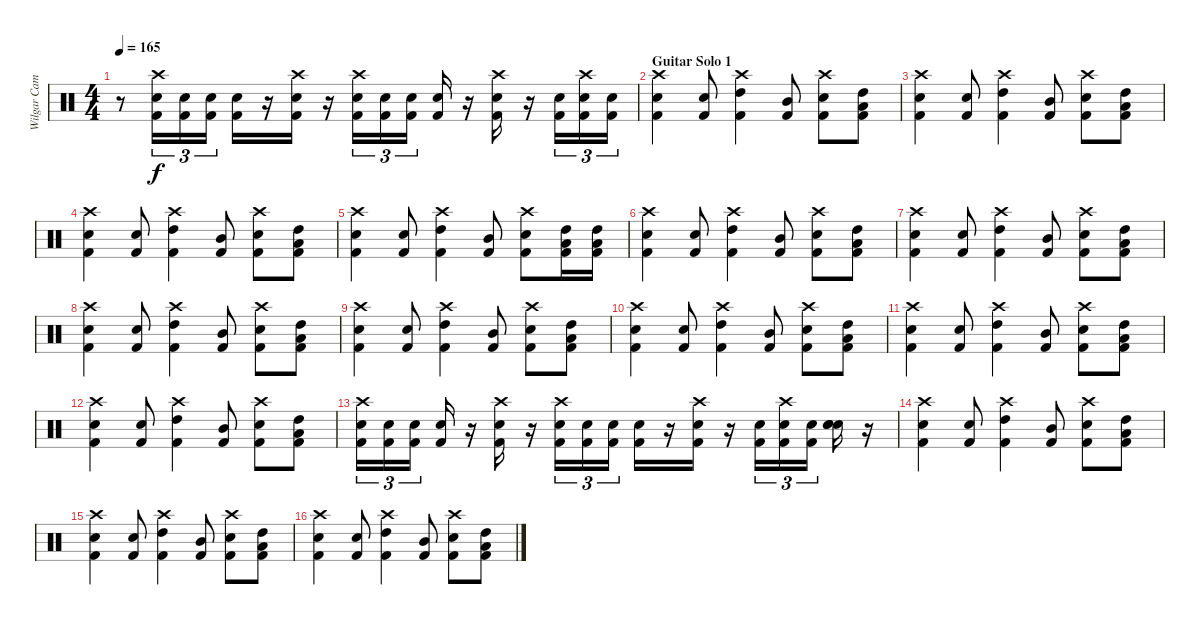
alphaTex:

\track ("Wilgar Campbell" "Wilgar Cam") {instrument percussion}
\staff {score}
\articulation defaults
\ts (4 4)
\tempo 165
\clef neutral
\ks c
r.8{dy f} ("Crash high (hit)" "Electric Snare (hit)" "Kick (hit) 2").16{tu (3 2)} ("Electric Snare (hit)" "Kick (hit) 2").16{tu (3 2)} ("Electric Snare (hit)" "Kick (hit) 2").16{tu (3 2)} ("Snare (hit) 2" "Kick (hit) 2").16 r.16 ("Crash high (hit)" "Snare (hit) 2" "Kick (hit) 2").16 r.16 ("Crash high (hit)" "Electric Snare (hit)" "Kick (hit) 2").16{tu (3 2)} ("Electric Snare (hit)" "Kick (hit) 2").16{tu (3 2)} ("Electric Snare (hit)" "Kick (hit) 2").16{tu (3 2)} ("Snare (hit) 2" "Kick (hit) 2").16 r.16 ("Crash high (hit)" "Snare (hit) 2" "Kick (hit) 2").16 r.16 ("Electric Snare (hit)" "Kick (hit) 2").16{tu (3 2)} ("Crash high (hit)" "Electric Snare (hit)" "Kick (hit) 2").16{tu (3 2)} ("Electric Snare (hit)" "Kick (hit) 2").16{tu (3 2)} |
\section ("" "Guitar Solo 1")
("Crash high (hit)" "Electric Snare (hit)" "Kick (hit) 2").4 ("Snare (hit) 2" "Kick (hit) 2").8 ("Crash high (hit)" "High Tom (hit)" "Kick (hit) 2").4 ("Mid Tom (hit)" "Kick (hit) 2").8 ("Crash high (hit)" "Electric Snare (hit)" "Kick (hit) 2").8 ("High Tom (hit)" "Kick (hit) 2" "Low Tom (hit)").8 |
("Crash high (hit)" "Electric Snare (hit)" "Kick (hit) 2").4 ("Snare (hit) 2" "Kick (hit) 2").8 ("Crash high (hit)" "High Tom (hit)" "Kick (hit) 2").4 ("Mid Tom (hit)" "Kick (hit) 2").8 ("Crash high (hit)" "Electric Snare (hit)" "Kick (hit) 2").8 ("High Tom (hit)" "Kick (hit) 2" "Low Tom (hit)").8 |
("Crash high (hit)" "Electric Snare (hit)" "Kick (hit) 2").4 ("Snare (hit) 2" "Kick (hit) 2").8 ("Crash high (hit)" "High Tom (hit)" "Kick (hit) 2").4 ("Mid Tom (hit)" "Kick (hit) 2").8 ("Crash high (hit)" "Electric Snare (hit)" "Kick (hit) 2").8 ("High Tom (hit)" "Kick (hit) 2" "Low Tom (hit)").8 |
("Crash high (hit)" "Electric Snare (hit)" "Kick (hit) 2").4 ("Snare (hit) 2" "Kick (hit) 2").8 ("Crash high (hit)" "High Tom (hit)" "Kick (hit) 2").4 ("Mid Tom (hit)" "Kick (hit) 2").8 ("Crash high (hit)" "Electric Snare (hit)" "Kick (hit) 2").8 ("High Tom (hit)" "Kick (hit) 2" "Low Tom (hit)").16 ("High Tom (hit)" "Kick (hit) 2" "Low Tom (hit)").16 |
("Crash high (hit)" "Electric Snare (hit)" "Kick (hit) 2").4 ("Snare (hit) 2" "Kick (hit) 2").8 ("Crash high (hit)" "High Tom (hit)" "Kick (hit) 2").4 ("Mid Tom (hit)" "Kick (hit) 2").8 ("Crash high (hit)" "Electric Snare (hit)" "Kick (hit) 2").8 ("High Tom (hit)" "Kick (hit) 2" "Low Tom (hit)").8 |
("Crash high (hit)" "Electric Snare (hit)" "Kick (hit) 2").4 ("Snare (hit) 2" "Kick (hit) 2").8 ("Crash high (hit)" "High Tom (hit)" "Kick (hit) 2").4 ("Mid Tom (hit)" "Kick (hit) 2").8 ("Crash high (hit)" "Electric Snare (hit)" "Kick (hit) 2").8 ("High Tom (hit)" "Kick (hit) 2" "Low Tom (hit)").8 |
("Crash high (hit)" "Electric Snare (hit)" "Kick (hit) 2").4 ("Snare (hit) 2" "Kick (hit) 2").8 ("Crash high (hit)" "High Tom (hit)" "Kick (hit) 2").4 ("Mid Tom (hit)" "Kick (hit) 2").8 ("Crash high (hit)" "Electric Snare (hit)" "Kick (hit) 2").8 ("High Tom (hit)" "Kick (hit) 2" "Low Tom (hit)").8 |
("Crash high (hit)" "Electric Snare (hit)" "Kick (hit) 2").4 ("Snare (hit) 2" "Kick (hit) 2").8 ("Crash high (hit)" "High Tom (hit)" "Kick (hit) 2").4 ("Mid Tom (hit)" "Kick (hit) 2").8 ("Crash high (hit)" "Electric Snare (hit)" "Kick (hit) 2").8 ("High Tom (hit)" "Kick (hit) 2" "Low Tom (hit)").8 |
("Crash high (hit)" "Electric Snare (hit)" "Kick (hit) 2").4 ("Snare (hit) 2" "Kick (hit) 2").8 ("Crash high (hit)" "High Tom (hit)" "Kick (hit) 2").4 ("Mid Tom (hit)" "Kick (hit) 2").8 ("Crash high (hit)" "Electric Snare (hit)" "Kick (hit) 2").8 ("High Tom (hit)" "Kick (hit) 2" "Low Tom (hit)").8 |
("Crash high (hit)" "Electric Snare (hit)" "Kick (hit) 2").4 ("Snare (hit) 2" "Kick (hit) 2").8 ("Crash high (hit)" "High Tom (hit)" "Kick (hit) 2").4 ("Mid Tom (hit)" "Kick (hit) 2").8 ("Crash high (hit)" "Electric Snare (hit)" "Kick (hit) 2").8 ("High Tom (hit)" "Kick (hit) 2" "Low Tom (hit)").8 |
("Crash high (hit)" "Electric Snare (hit)" "Kick (hit) 2").4 ("Snare (hit) 2" "Kick (hit) 2").8 ("Crash high (hit)" "High Tom (hit)" "Kick (hit) 2").4 ("Mid Tom (hit)" "Kick (hit) 2").8 ("Crash high (hit)" "Electric Snare (hit)" "Kick (hit) 2").8 ("High Tom (hit)" "Kick (hit) 2" "Low Tom (hit)").8 |
("Crash high (hit)" "Electric Snare (hit)" "Kick (hit) 2").16{tu (3 2)} ("Electric Snare (hit)" "Kick (hit) 2").16{tu (3 2)} ("Electric Snare (hit)" "Kick (hit) 2").16{tu (3 2)} ("Snare (hit) 2" "Kick (hit) 2").16 r.16 ("Crash high (hit)" "Snare (hit) 2" "Kick (hit) 2").16 r.16 ("Crash high (hit)" "Electric Snare (hit)" "Kick (hit) 2").16{tu (3 2)} ("Electric Snare (hit)" "Kick (hit) 2").16{tu (3 2)} ("Electric Snare (hit)" "Kick (hit) 2").16{tu (3 2)} ("Snare (hit) 2" "Kick (hit) 2").16 r.16 ("Crash high (hit)" "Snare (hit) 2" "Kick (hit) 2").16 r.16 ("Electric Snare (hit)" "Kick (hit) 2").16{tu (3 2)} ("Crash high (hit)" "Electric Snare (hit)" "Kick (hit) 2").16{tu (3 2)} ("Electric Snare (hit)" "Kick (hit) 2").16{tu (3 2)} ("Electric Snare (hit)" "Snare (hit) 2" "Electric Snare (hit)").16 r.16 |
("Crash high (hit)" "Electric Snare (hit)" "Kick (hit) 2").4 ("Snare (hit) 2" "Kick (hit) 2").8 ("Crash high (hit)" "High Tom (hit)" "Kick (hit) 2").4 ("Mid Tom (hit)" "Kick (hit) 2").8 ("Crash high (hit)" "Electric Snare (hit)" "Kick (hit) 2").8 ("High Tom (hit)" "Kick (hit) 2" "Low Tom (hit)").8 |
("Crash high (hit)" "Electric Snare (hit)" "Kick (hit) 2").4 ("Snare (hit) 2" "Kick (hit) 2").8 ("Crash high (hit)" "High Tom (hit)" "Kick (hit) 2").4 ("Mid Tom (hit)" "Kick (hit) 2").8 ("Crash high (hit)" "Electric Snare (hit)" "Kick (hit) 2").8 ("High Tom (hit)" "Kick (hit) 2" "Low Tom (hit)").8 |
("Crash high (hit)" "Electric Snare (hit)" "Kick (hit) 2").4 ("Snare (hit) 2" "Kick (hit) 2").8 ("Crash high (hit)" "High Tom (hit)" "Kick (hit) 2").4 ("Mid Tom (hit)" "Kick (hit) 2").8 ("Crash high (hit)" "Electric Snare (hit)" "Kick (hit) 2").8 ("High Tom (hit)" "Kick (hit) 2" "Low Tom (hit)").8
